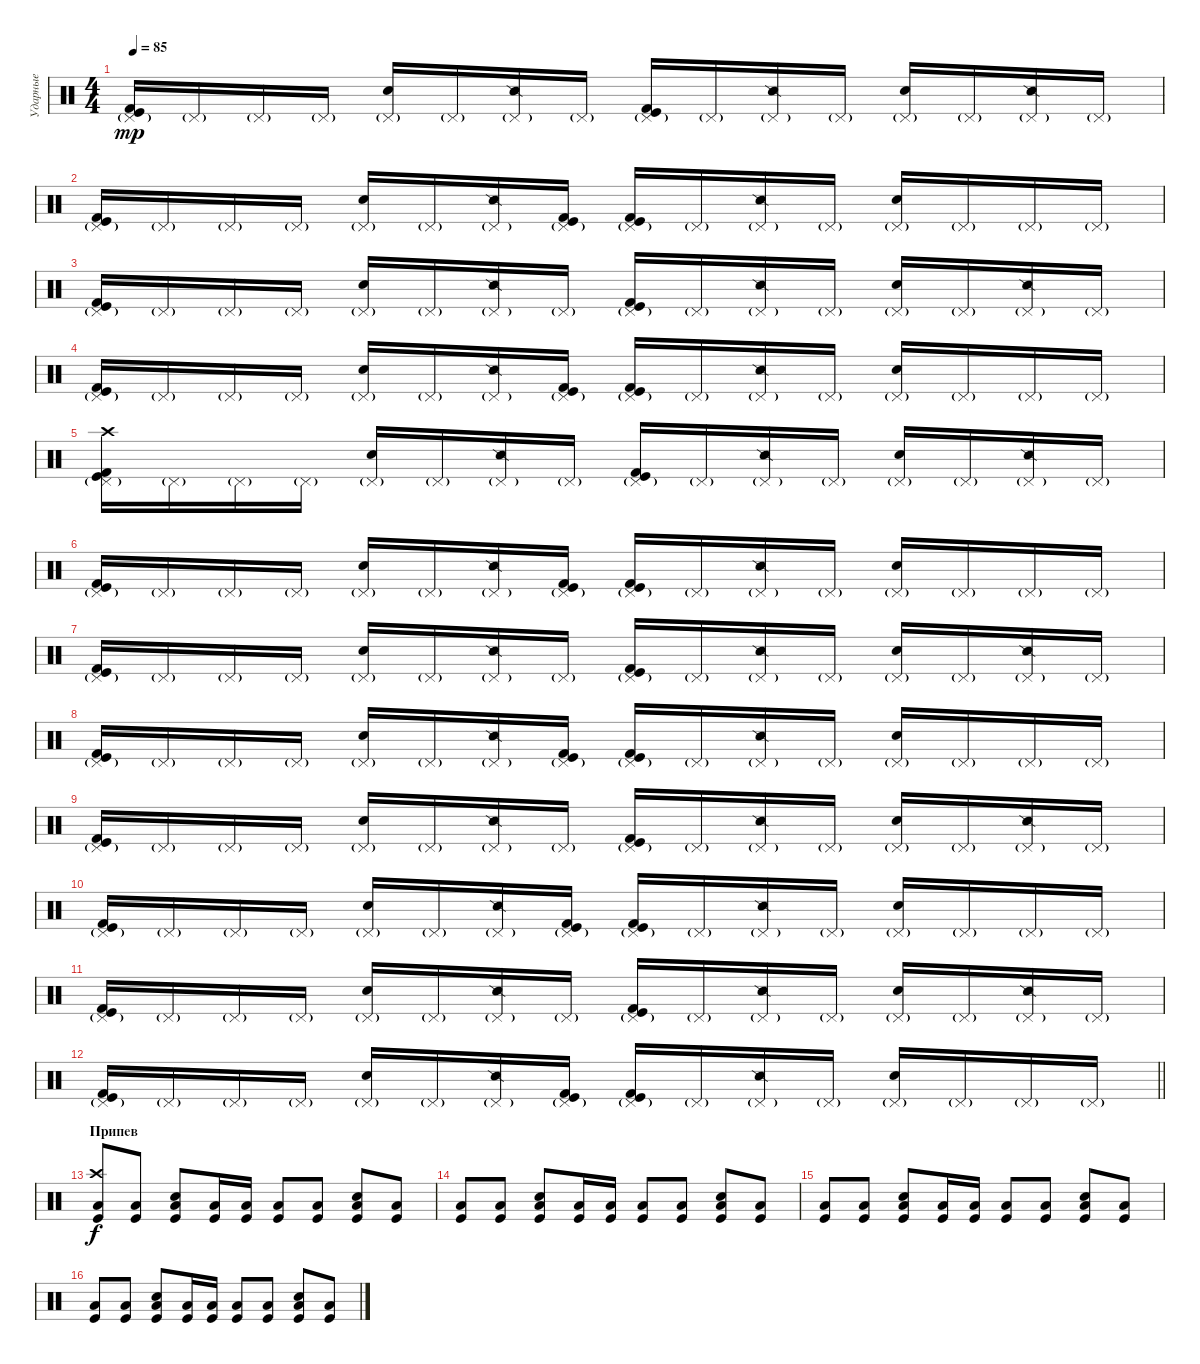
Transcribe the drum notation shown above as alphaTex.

\track ("Ударные" "Ударные") {instrument percussion}
\staff {score}
\articulation defaults
\ts (4 4)
\tempo 85
\clef neutral
\ks c
("Pedal Hi-Hat (hit)"{g} "Kick (hit) 2" "Kick (hit)").16{dy mp} "Pedal Hi-Hat (hit)"{g}.16 "Pedal Hi-Hat (hit)"{g}.16 "Pedal Hi-Hat (hit)"{g}.16 ("Pedal Hi-Hat (hit)"{g} "Electric Snare (hit)").16 "Pedal Hi-Hat (hit)"{g}.16 ("Pedal Hi-Hat (hit)"{g} "Snare (side stick) 2").16 "Pedal Hi-Hat (hit)"{g}.16 ("Pedal Hi-Hat (hit)"{g} "Kick (hit) 2" "Kick (hit)").16 "Pedal Hi-Hat (hit)"{g}.16 ("Pedal Hi-Hat (hit)"{g} "Snare (side stick) 2").16 "Pedal Hi-Hat (hit)"{g}.16 ("Pedal Hi-Hat (hit)"{g} "Electric Snare (hit)").16 "Pedal Hi-Hat (hit)"{g}.16 ("Pedal Hi-Hat (hit)"{g} "Snare (side stick) 2").16 "Pedal Hi-Hat (hit)"{g}.16 |
("Pedal Hi-Hat (hit)"{g} "Kick (hit) 2" "Kick (hit)").16 "Pedal Hi-Hat (hit)"{g}.16 "Pedal Hi-Hat (hit)"{g}.16 "Pedal Hi-Hat (hit)"{g}.16 ("Pedal Hi-Hat (hit)"{g} "Electric Snare (hit)").16 "Pedal Hi-Hat (hit)"{g}.16 ("Pedal Hi-Hat (hit)"{g} "Snare (side stick) 2").16 ("Pedal Hi-Hat (hit)"{g} "Kick (hit) 2" "Kick (hit)").16 ("Pedal Hi-Hat (hit)"{g} "Kick (hit) 2" "Kick (hit)").16 "Pedal Hi-Hat (hit)"{g}.16 ("Pedal Hi-Hat (hit)"{g} "Snare (side stick) 2").16 "Pedal Hi-Hat (hit)"{g}.16 ("Pedal Hi-Hat (hit)"{g} "Electric Snare (hit)").16 "Pedal Hi-Hat (hit)"{g}.16 "Pedal Hi-Hat (hit)"{g}.16 "Pedal Hi-Hat (hit)"{g}.16 |
("Pedal Hi-Hat (hit)"{g} "Kick (hit) 2" "Kick (hit)").16 "Pedal Hi-Hat (hit)"{g}.16 "Pedal Hi-Hat (hit)"{g}.16 "Pedal Hi-Hat (hit)"{g}.16 ("Pedal Hi-Hat (hit)"{g} "Electric Snare (hit)").16 "Pedal Hi-Hat (hit)"{g}.16 ("Pedal Hi-Hat (hit)"{g} "Snare (side stick) 2").16 "Pedal Hi-Hat (hit)"{g}.16 ("Pedal Hi-Hat (hit)"{g} "Kick (hit) 2" "Kick (hit)").16 "Pedal Hi-Hat (hit)"{g}.16 ("Pedal Hi-Hat (hit)"{g} "Snare (side stick) 2").16 "Pedal Hi-Hat (hit)"{g}.16 ("Pedal Hi-Hat (hit)"{g} "Electric Snare (hit)").16 "Pedal Hi-Hat (hit)"{g}.16 ("Pedal Hi-Hat (hit)"{g} "Snare (side stick) 2").16 "Pedal Hi-Hat (hit)"{g}.16 |
("Pedal Hi-Hat (hit)"{g} "Kick (hit) 2" "Kick (hit)").16 "Pedal Hi-Hat (hit)"{g}.16 "Pedal Hi-Hat (hit)"{g}.16 "Pedal Hi-Hat (hit)"{g}.16 ("Pedal Hi-Hat (hit)"{g} "Electric Snare (hit)").16 "Pedal Hi-Hat (hit)"{g}.16 ("Pedal Hi-Hat (hit)"{g} "Snare (side stick) 2").16 ("Pedal Hi-Hat (hit)"{g} "Kick (hit) 2" "Kick (hit)").16 ("Pedal Hi-Hat (hit)"{g} "Kick (hit) 2" "Kick (hit)").16 "Pedal Hi-Hat (hit)"{g}.16 ("Pedal Hi-Hat (hit)"{g} "Snare (side stick) 2").16 "Pedal Hi-Hat (hit)"{g}.16 ("Pedal Hi-Hat (hit)"{g} "Electric Snare (hit)").16 "Pedal Hi-Hat (hit)"{g}.16 "Pedal Hi-Hat (hit)"{g}.16 "Pedal Hi-Hat (hit)"{g}.16 |
("Pedal Hi-Hat (hit)"{g} "Crash high (hit)" "Kick (hit) 2" "Kick (hit)").16 "Pedal Hi-Hat (hit)"{g}.16 "Pedal Hi-Hat (hit)"{g}.16 "Pedal Hi-Hat (hit)"{g}.16 ("Pedal Hi-Hat (hit)"{g} "Electric Snare (hit)").16 "Pedal Hi-Hat (hit)"{g}.16 ("Pedal Hi-Hat (hit)"{g} "Snare (side stick) 2").16 "Pedal Hi-Hat (hit)"{g}.16 ("Pedal Hi-Hat (hit)"{g} "Kick (hit) 2" "Kick (hit)").16 "Pedal Hi-Hat (hit)"{g}.16 ("Pedal Hi-Hat (hit)"{g} "Snare (side stick) 2").16 "Pedal Hi-Hat (hit)"{g}.16 ("Pedal Hi-Hat (hit)"{g} "Electric Snare (hit)").16 "Pedal Hi-Hat (hit)"{g}.16 ("Pedal Hi-Hat (hit)"{g} "Snare (side stick) 2").16 "Pedal Hi-Hat (hit)"{g}.16 |
("Pedal Hi-Hat (hit)"{g} "Kick (hit) 2" "Kick (hit)").16 "Pedal Hi-Hat (hit)"{g}.16 "Pedal Hi-Hat (hit)"{g}.16 "Pedal Hi-Hat (hit)"{g}.16 ("Pedal Hi-Hat (hit)"{g} "Electric Snare (hit)").16 "Pedal Hi-Hat (hit)"{g}.16 ("Pedal Hi-Hat (hit)"{g} "Snare (side stick) 2").16 ("Pedal Hi-Hat (hit)"{g} "Kick (hit) 2" "Kick (hit)").16 ("Pedal Hi-Hat (hit)"{g} "Kick (hit) 2" "Kick (hit)").16 "Pedal Hi-Hat (hit)"{g}.16 ("Pedal Hi-Hat (hit)"{g} "Snare (side stick) 2").16 "Pedal Hi-Hat (hit)"{g}.16 ("Pedal Hi-Hat (hit)"{g} "Electric Snare (hit)").16 "Pedal Hi-Hat (hit)"{g}.16 "Pedal Hi-Hat (hit)"{g}.16 "Pedal Hi-Hat (hit)"{g}.16 |
("Pedal Hi-Hat (hit)"{g} "Kick (hit) 2" "Kick (hit)").16 "Pedal Hi-Hat (hit)"{g}.16 "Pedal Hi-Hat (hit)"{g}.16 "Pedal Hi-Hat (hit)"{g}.16 ("Pedal Hi-Hat (hit)"{g} "Electric Snare (hit)").16 "Pedal Hi-Hat (hit)"{g}.16 ("Pedal Hi-Hat (hit)"{g} "Snare (side stick) 2").16 "Pedal Hi-Hat (hit)"{g}.16 ("Pedal Hi-Hat (hit)"{g} "Kick (hit) 2" "Kick (hit)").16 "Pedal Hi-Hat (hit)"{g}.16 ("Pedal Hi-Hat (hit)"{g} "Snare (side stick) 2").16 "Pedal Hi-Hat (hit)"{g}.16 ("Pedal Hi-Hat (hit)"{g} "Electric Snare (hit)").16 "Pedal Hi-Hat (hit)"{g}.16 ("Pedal Hi-Hat (hit)"{g} "Snare (side stick) 2").16 "Pedal Hi-Hat (hit)"{g}.16 |
("Pedal Hi-Hat (hit)"{g} "Kick (hit) 2" "Kick (hit)").16 "Pedal Hi-Hat (hit)"{g}.16 "Pedal Hi-Hat (hit)"{g}.16 "Pedal Hi-Hat (hit)"{g}.16 ("Pedal Hi-Hat (hit)"{g} "Electric Snare (hit)").16 "Pedal Hi-Hat (hit)"{g}.16 ("Pedal Hi-Hat (hit)"{g} "Snare (side stick) 2").16 ("Pedal Hi-Hat (hit)"{g} "Kick (hit) 2" "Kick (hit)").16 ("Pedal Hi-Hat (hit)"{g} "Kick (hit) 2" "Kick (hit)").16 "Pedal Hi-Hat (hit)"{g}.16 ("Pedal Hi-Hat (hit)"{g} "Snare (side stick) 2").16 "Pedal Hi-Hat (hit)"{g}.16 ("Pedal Hi-Hat (hit)"{g} "Electric Snare (hit)").16 "Pedal Hi-Hat (hit)"{g}.16 "Pedal Hi-Hat (hit)"{g}.16 "Pedal Hi-Hat (hit)"{g}.16 |
("Pedal Hi-Hat (hit)"{g} "Kick (hit) 2" "Kick (hit)").16 "Pedal Hi-Hat (hit)"{g}.16 "Pedal Hi-Hat (hit)"{g}.16 "Pedal Hi-Hat (hit)"{g}.16 ("Pedal Hi-Hat (hit)"{g} "Electric Snare (hit)").16 "Pedal Hi-Hat (hit)"{g}.16 ("Pedal Hi-Hat (hit)"{g} "Snare (side stick) 2").16 "Pedal Hi-Hat (hit)"{g}.16 ("Pedal Hi-Hat (hit)"{g} "Kick (hit) 2" "Kick (hit)").16 "Pedal Hi-Hat (hit)"{g}.16 ("Pedal Hi-Hat (hit)"{g} "Snare (side stick) 2").16 "Pedal Hi-Hat (hit)"{g}.16 ("Pedal Hi-Hat (hit)"{g} "Electric Snare (hit)").16 "Pedal Hi-Hat (hit)"{g}.16 ("Pedal Hi-Hat (hit)"{g} "Snare (side stick) 2").16 "Pedal Hi-Hat (hit)"{g}.16 |
("Pedal Hi-Hat (hit)"{g} "Kick (hit) 2" "Kick (hit)").16 "Pedal Hi-Hat (hit)"{g}.16 "Pedal Hi-Hat (hit)"{g}.16 "Pedal Hi-Hat (hit)"{g}.16 ("Pedal Hi-Hat (hit)"{g} "Electric Snare (hit)").16 "Pedal Hi-Hat (hit)"{g}.16 ("Pedal Hi-Hat (hit)"{g} "Snare (side stick) 2").16 ("Pedal Hi-Hat (hit)"{g} "Kick (hit) 2" "Kick (hit)").16 ("Pedal Hi-Hat (hit)"{g} "Kick (hit) 2" "Kick (hit)").16 "Pedal Hi-Hat (hit)"{g}.16 ("Pedal Hi-Hat (hit)"{g} "Snare (side stick) 2").16 "Pedal Hi-Hat (hit)"{g}.16 ("Pedal Hi-Hat (hit)"{g} "Electric Snare (hit)").16 "Pedal Hi-Hat (hit)"{g}.16 "Pedal Hi-Hat (hit)"{g}.16 "Pedal Hi-Hat (hit)"{g}.16 |
("Pedal Hi-Hat (hit)"{g} "Kick (hit) 2" "Kick (hit)").16 "Pedal Hi-Hat (hit)"{g}.16 "Pedal Hi-Hat (hit)"{g}.16 "Pedal Hi-Hat (hit)"{g}.16 ("Pedal Hi-Hat (hit)"{g} "Electric Snare (hit)").16 "Pedal Hi-Hat (hit)"{g}.16 ("Pedal Hi-Hat (hit)"{g} "Snare (side stick) 2").16 "Pedal Hi-Hat (hit)"{g}.16 ("Pedal Hi-Hat (hit)"{g} "Kick (hit) 2" "Kick (hit)").16 "Pedal Hi-Hat (hit)"{g}.16 ("Pedal Hi-Hat (hit)"{g} "Snare (side stick) 2").16 "Pedal Hi-Hat (hit)"{g}.16 ("Pedal Hi-Hat (hit)"{g} "Electric Snare (hit)").16 "Pedal Hi-Hat (hit)"{g}.16 ("Pedal Hi-Hat (hit)"{g} "Snare (side stick) 2").16 "Pedal Hi-Hat (hit)"{g}.16 |
\barLineRight lightlight
("Pedal Hi-Hat (hit)"{g} "Kick (hit) 2" "Kick (hit)").16 "Pedal Hi-Hat (hit)"{g}.16 "Pedal Hi-Hat (hit)"{g}.16 "Pedal Hi-Hat (hit)"{g}.16 ("Pedal Hi-Hat (hit)"{g} "Electric Snare (hit)").16 "Pedal Hi-Hat (hit)"{g}.16 ("Pedal Hi-Hat (hit)"{g} "Snare (side stick) 2").16 ("Pedal Hi-Hat (hit)"{g} "Kick (hit) 2" "Kick (hit)").16 ("Pedal Hi-Hat (hit)"{g} "Kick (hit) 2" "Kick (hit)").16 "Pedal Hi-Hat (hit)"{g}.16 ("Pedal Hi-Hat (hit)"{g} "Snare (side stick) 2").16 "Pedal Hi-Hat (hit)"{g}.16 ("Pedal Hi-Hat (hit)"{g} "Electric Snare (hit)").16 "Pedal Hi-Hat (hit)"{g}.16 "Pedal Hi-Hat (hit)"{g}.16 "Pedal Hi-Hat (hit)"{g}.16 |
\section ("" "Припев")
("Crash high (hit)" "Low Tom (hit)" "Kick (hit)").8{dy f} ("Low Tom (hit)" "Kick (hit)").8 ("Electric Snare (hit)" "Low Tom (hit)" "Kick (hit)").8 ("Low Tom (hit)" "Kick (hit)").16 ("Low Tom (hit)" "Kick (hit)").16 ("Low Tom (hit)" "Kick (hit)").8 ("Low Tom (hit)" "Kick (hit)").8 ("Electric Snare (hit)" "Low Tom (hit)" "Kick (hit)").8 ("Low Tom (hit)" "Kick (hit)").8 |
("Low Tom (hit)" "Kick (hit)").8 ("Low Tom (hit)" "Kick (hit)").8 ("Electric Snare (hit)" "Low Tom (hit)" "Kick (hit)").8 ("Low Tom (hit)" "Kick (hit)").16 ("Low Tom (hit)" "Kick (hit)").16 ("Low Tom (hit)" "Kick (hit)").8 ("Low Tom (hit)" "Kick (hit)").8 ("Electric Snare (hit)" "Low Tom (hit)" "Kick (hit)").8 ("Low Tom (hit)" "Kick (hit)").8 |
("Low Tom (hit)" "Kick (hit)").8 ("Low Tom (hit)" "Kick (hit)").8 ("Electric Snare (hit)" "Low Tom (hit)" "Kick (hit)").8 ("Low Tom (hit)" "Kick (hit)").16 ("Low Tom (hit)" "Kick (hit)").16 ("Low Tom (hit)" "Kick (hit)").8 ("Low Tom (hit)" "Kick (hit)").8 ("Electric Snare (hit)" "Low Tom (hit)" "Kick (hit)").8 ("Low Tom (hit)" "Kick (hit)").8 |
("Low Tom (hit)" "Kick (hit)").8 ("Low Tom (hit)" "Kick (hit)").8 ("Electric Snare (hit)" "Low Tom (hit)" "Kick (hit)").8 ("Low Tom (hit)" "Kick (hit)").16 ("Low Tom (hit)" "Kick (hit)").16 ("Low Tom (hit)" "Kick (hit)").8 ("Low Tom (hit)" "Kick (hit)").8 ("Electric Snare (hit)" "Low Tom (hit)" "Kick (hit)").8 ("Low Tom (hit)" "Kick (hit)").8
